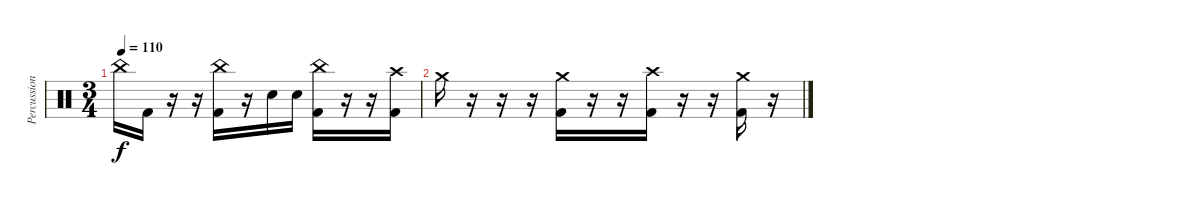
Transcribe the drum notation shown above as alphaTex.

\track ("Percussion" "Percussion") {instrument percussion}
\staff {score}
\articulation defaults
\ts (3 4)
\tempo 110
\clef neutral
\ks c "China (hit)".16{dy f} "Kick (hit) 2".16
r.16 r.16 ("China (hit)" "Kick (hit) 2").16 r.16 "Electric Snare (hit)".16 "Electric Snare (hit)".16 ("China (hit)" "Kick (hit) 2").16 r.16 r.16 ("Crash high (hit)" "Kick (hit) 2").16 |
"Crash medium (hit)".16 r.16 r.16 r.16 ("Crash medium (hit)" "Kick (hit) 2").16 r.16 r.16 ("Crash high (hit)" "Kick (hit) 2").16 r.16 r.16 ("Crash medium (hit)" "Kick (hit) 2").16 r.16
